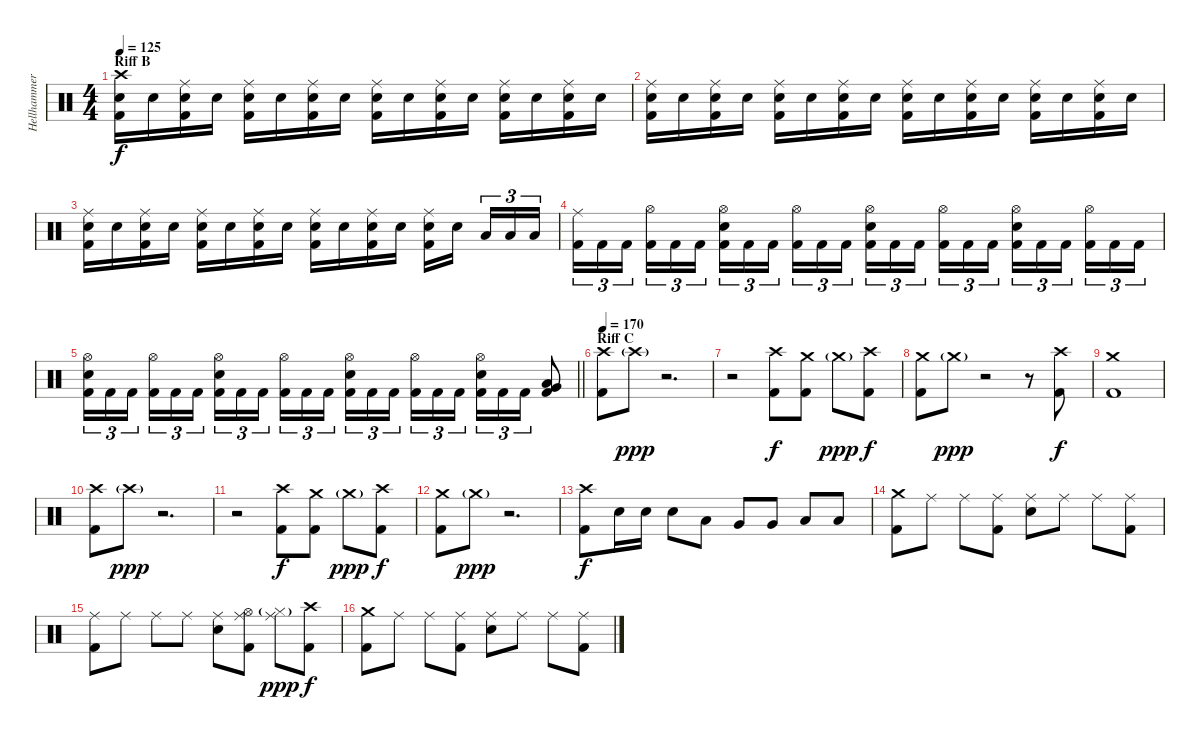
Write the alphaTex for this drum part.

\track ("Hellhammer" "Hellhammer") {instrument percussion}
\staff {score}
\articulation defaults
\ts (4 4)
\section ("" "Riff B")
\tempo 125
\clef neutral
\ks c
("Crash high (hit)" "Snare (hit) 2" "Kick (hit) 2").16{dy f} "Snare (hit) 2".16 ("Ride (middle)" "Snare (hit) 2" "Kick (hit) 2").16 "Snare (hit) 2".16 ("Ride (middle)" "Snare (hit) 2" "Kick (hit) 2").16 "Snare (hit) 2".16 ("Ride (middle)" "Snare (hit) 2" "Kick (hit) 2").16 "Snare (hit) 2".16 ("Ride (middle)" "Snare (hit) 2" "Kick (hit) 2").16 "Snare (hit) 2".16 ("Ride (middle)" "Snare (hit) 2" "Kick (hit) 2").16 "Snare (hit) 2".16 ("Ride (middle)" "Snare (hit) 2" "Kick (hit) 2").16 "Snare (hit) 2".16 ("Ride (middle)" "Snare (hit) 2" "Kick (hit) 2").16 "Snare (hit) 2".16 |
("Ride (middle)" "Snare (hit) 2" "Kick (hit) 2").16 "Snare (hit) 2".16 ("Ride (middle)" "Snare (hit) 2" "Kick (hit) 2").16 "Snare (hit) 2".16 ("Ride (middle)" "Snare (hit) 2" "Kick (hit) 2").16 "Snare (hit) 2".16 ("Ride (middle)" "Snare (hit) 2" "Kick (hit) 2").16 "Snare (hit) 2".16 ("Ride (middle)" "Snare (hit) 2" "Kick (hit) 2").16 "Snare (hit) 2".16 ("Ride (middle)" "Snare (hit) 2" "Kick (hit) 2").16 "Snare (hit) 2".16 ("Ride (middle)" "Snare (hit) 2" "Kick (hit) 2").16 "Snare (hit) 2".16 ("Ride (middle)" "Snare (hit) 2" "Kick (hit) 2").16 "Snare (hit) 2".16 |
("Ride (middle)" "Snare (hit) 2" "Kick (hit) 2").16 "Snare (hit) 2".16 ("Ride (middle)" "Snare (hit) 2" "Kick (hit) 2").16 "Snare (hit) 2".16 ("Ride (middle)" "Snare (hit) 2" "Kick (hit) 2").16 "Snare (hit) 2".16 ("Ride (middle)" "Snare (hit) 2" "Kick (hit) 2").16 "Snare (hit) 2".16 ("Ride (middle)" "Snare (hit) 2" "Kick (hit) 2").16 "Snare (hit) 2".16 ("Ride (middle)" "Snare (hit) 2" "Kick (hit) 2").16 "Snare (hit) 2".16 ("Ride (middle)" "Snare (hit) 2" "Kick (hit) 2").16 "Snare (hit) 2".16{beam splitsecondary} "Low Tom (hit)".16{tu (3 2)} "Low Tom (hit)".16{tu (3 2)} "Low Tom (hit)".16{tu (3 2)} |
("Ride (middle)" "Kick (hit) 2").16{tu (3 2)} "Kick (hit) 2".16{tu (3 2)} "Kick (hit) 2".16{tu (3 2) beam splitsecondary} ("Hi-Hat (open)" "Kick (hit) 2").16{tu (3 2)} "Kick (hit) 2".16{tu (3 2)} "Kick (hit) 2".16{tu (3 2)} ("Hi-Hat (open)" "Snare (hit) 2" "Kick (hit) 2").16{tu (3 2)} "Kick (hit) 2".16{tu (3 2)} "Kick (hit) 2".16{tu (3 2) beam splitsecondary} ("Hi-Hat (open)" "Kick (hit) 2").16{tu (3 2)} "Kick (hit) 2".16{tu (3 2)} "Kick (hit) 2".16{tu (3 2)} ("Hi-Hat (open)" "Snare (hit) 2" "Kick (hit) 2").16{tu (3 2)} "Kick (hit) 2".16{tu (3 2)} "Kick (hit) 2".16{tu (3 2) beam splitsecondary} ("Hi-Hat (open)" "Kick (hit) 2").16{tu (3 2)} "Kick (hit) 2".16{tu (3 2)} "Kick (hit) 2".16{tu (3 2)} ("Hi-Hat (open)" "Snare (hit) 2" "Kick (hit) 2").16{tu (3 2)} "Kick (hit) 2".16{tu (3 2)} "Kick (hit) 2".16{tu (3 2) beam splitsecondary} ("Hi-Hat (open)" "Kick (hit) 2").16{tu (3 2)} "Kick (hit) 2".16{tu (3 2)} "Kick (hit) 2".16{tu (3 2)} |
\barLineRight lightlight
("Hi-Hat (open)" "Snare (hit) 2" "Kick (hit) 2").16{tu (3 2)} "Kick (hit) 2".16{tu (3 2)} "Kick (hit) 2".16{tu (3 2) beam splitsecondary} ("Hi-Hat (open)" "Kick (hit) 2").16{tu (3 2)} "Kick (hit) 2".16{tu (3 2)} "Kick (hit) 2".16{tu (3 2)} ("Hi-Hat (open)" "Snare (hit) 2" "Kick (hit) 2").16{tu (3 2)} "Kick (hit) 2".16{tu (3 2)} "Kick (hit) 2".16{tu (3 2) beam splitsecondary} ("Hi-Hat (open)" "Kick (hit) 2").16{tu (3 2)} "Kick (hit) 2".16{tu (3 2)} "Kick (hit) 2".16{tu (3 2)} ("Hi-Hat (open)" "Snare (hit) 2" "Kick (hit) 2").16{tu (3 2)} "Kick (hit) 2".16{tu (3 2)} "Kick (hit) 2".16{tu (3 2) beam splitsecondary} ("Hi-Hat (open)" "Kick (hit) 2").16{tu (3 2)} "Kick (hit) 2".16{tu (3 2)} "Kick (hit) 2".16{tu (3 2)} ("Hi-Hat (open)" "Snare (hit) 2" "Kick (hit) 2").16{tu (3 2)} "Kick (hit) 2".16{tu (3 2)} "Kick (hit) 2".16{tu (3 2)} ("Very Low Tom (hit)" "Low Floor Tom (hit)" "Kick (hit) 2").8 |
\section ("" "Riff C")
\tempo 170
("Crash high (hit)" "Kick (hit) 2").8 "Crash high (hit)"{g}.8{dy ppp} r.2{d} |
r.2 ("Crash high (hit)" "Kick (hit) 2").8{dy f} ("Crash medium (hit)" "Kick (hit) 2").8 "Crash medium (hit)"{g}.8{dy ppp} ("Crash high (hit)" "Kick (hit) 2").8{dy f} |
("Crash medium (hit)" "Kick (hit) 2").8 "Crash medium (hit)"{g}.8{dy ppp} r.2 r.8 ("Crash high (hit)" "Kick (hit) 2").8{dy f} |
("Crash medium (hit)" "Kick (hit) 2").1 |
("Crash high (hit)" "Kick (hit) 2").8 "Crash high (hit)"{g}.8{dy ppp} r.2{d} |
r.2 ("Crash high (hit)" "Kick (hit) 2").8{dy f} ("Crash medium (hit)" "Kick (hit) 2").8 "Crash medium (hit)"{g}.8{dy ppp} ("Crash high (hit)" "Kick (hit) 2").8{dy f} |
("Crash medium (hit)" "Kick (hit) 2").8 "Crash medium (hit)"{g}.8{dy ppp} r.2{d} |
("Crash high (hit)" "Kick (hit) 2").8{dy f} "Snare (hit) 2".16 "Snare (hit) 2".16 "Snare (hit) 2".8 "Low Tom (hit)".8 "Very Low Tom (hit)".8 "Very Low Tom (hit)".8 "Low Floor Tom (hit)".8 "Low Floor Tom (hit)".8 |
("Crash medium (hit)" "Kick (hit) 2").8 "Ride (middle)".8 "Ride (middle)".8 ("Ride (middle)" "Kick (hit) 2").8 ("Ride (middle)" "Snare (hit) 2").8 "Ride (middle)".8 "Ride (middle)".8 ("Ride (middle)" "Kick (hit) 2").8 |
("Ride (middle)" "Kick (hit) 2").8 "Ride (middle)".8 "Ride (middle)".8 "Ride (middle)".8 ("Ride (middle)" "Snare (hit) 2").8 ("Ride (middle)" "Hi-Hat (open)" "Kick (hit) 2").8 ("Ride (middle)" "Hi-Hat (closed)"{g}).8{dy ppp} ("Crash high (hit)" "Kick (hit) 2").8{dy f} |
("Crash medium (hit)" "Kick (hit) 2").8 "Ride (middle)".8 "Ride (middle)".8 ("Ride (middle)" "Kick (hit) 2").8 ("Ride (middle)" "Snare (hit) 2").8 "Ride (middle)".8 "Ride (middle)".8 ("Ride (middle)" "Kick (hit) 2").8
